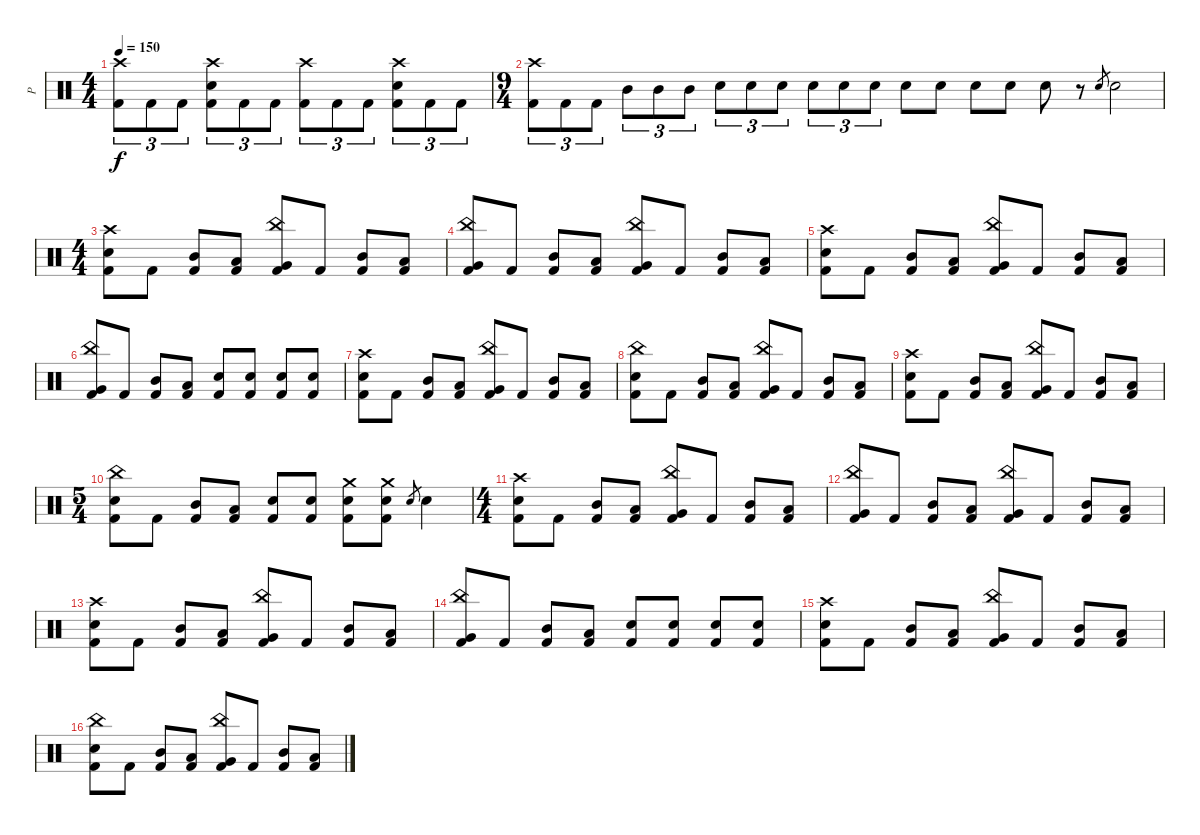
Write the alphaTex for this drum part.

\track ("P" "P") {instrument percussion}
\staff {score}
\articulation defaults
\ts (4 4)
\tempo 150
\clef neutral
\ks c
("Crash high (hit)" "Kick (hit) 2").8{tu (3 2) dy f} "Kick (hit) 2".8{tu (3 2)} "Kick (hit) 2".8{tu (3 2)} ("Crash high (hit)" "Electric Snare (hit)" "Kick (hit) 2").8{tu (3 2)} "Kick (hit) 2".8{tu (3 2)} "Kick (hit) 2".8{tu (3 2)} ("Crash high (hit)" "Kick (hit) 2").8{tu (3 2)} "Kick (hit) 2".8{tu (3 2)} "Kick (hit) 2".8{tu (3 2)} ("Crash high (hit)" "Electric Snare (hit)" "Kick (hit) 2").8{tu (3 2)} "Kick (hit) 2".8{tu (3 2)} "Kick (hit) 2".8{tu (3 2)} |
\ts (9 4)
("Crash high (hit)" "Kick (hit) 2").8{tu (3 2)} "Kick (hit) 2".8{tu (3 2)} "Kick (hit) 2".8{tu (3 2)} "Mid Tom (hit)".8{tu (3 2)} "Mid Tom (hit)".8{tu (3 2)} "Mid Tom (hit)".8{tu (3 2)} "Electric Snare (hit)".8{tu (3 2)} "Electric Snare (hit)".8{tu (3 2)} "Electric Snare (hit)".8{tu (3 2)} "Electric Snare (hit)".8{tu (3 2)} "Electric Snare (hit)".8{tu (3 2)} "Electric Snare (hit)".8{tu (3 2)} "Electric Snare (hit)".8 "Electric Snare (hit)".8 "Electric Snare (hit)".8 "Electric Snare (hit)".8 "Electric Snare (hit)".8 r.8 "Electric Snare (hit)".8{gr} "Electric Snare (hit)".2 |
\ts (4 4)
("Crash high (hit)" "Electric Snare (hit)" "Kick (hit) 2").8 "Kick (hit) 2".8 ("Mid Tom (hit)" "Kick (hit) 2").8 ("Low Tom (hit)" "Kick (hit) 2").8 ("China (hit)" "Very Low Tom (hit)" "Kick (hit) 2").8 "Kick (hit) 2".8 ("Mid Tom (hit)" "Kick (hit) 2").8 ("Low Tom (hit)" "Kick (hit) 2").8 |
("China (hit)" "Very Low Tom (hit)" "Kick (hit) 2").8 "Kick (hit) 2".8 ("Mid Tom (hit)" "Kick (hit) 2").8 ("Low Tom (hit)" "Kick (hit) 2").8 ("China (hit)" "Very Low Tom (hit)" "Kick (hit) 2").8 "Kick (hit) 2".8 ("Mid Tom (hit)" "Kick (hit) 2").8 ("Low Tom (hit)" "Kick (hit) 2").8 |
("Crash high (hit)" "Electric Snare (hit)" "Kick (hit) 2").8 "Kick (hit) 2".8 ("Mid Tom (hit)" "Kick (hit) 2").8 ("Low Tom (hit)" "Kick (hit) 2").8 ("China (hit)" "Very Low Tom (hit)" "Kick (hit) 2").8 "Kick (hit) 2".8 ("Mid Tom (hit)" "Kick (hit) 2").8 ("Low Tom (hit)" "Kick (hit) 2").8 |
("China (hit)" "Very Low Tom (hit)" "Kick (hit) 2").8 "Kick (hit) 2".8 ("Mid Tom (hit)" "Kick (hit) 2").8 ("Low Tom (hit)" "Kick (hit) 2").8 ("Electric Snare (hit)" "Kick (hit) 2").8 ("Electric Snare (hit)" "Kick (hit) 2").8 ("Electric Snare (hit)" "Kick (hit) 2").8 ("Electric Snare (hit)" "Kick (hit) 2").8 |
("Crash high (hit)" "Electric Snare (hit)" "Kick (hit) 2").8 "Kick (hit) 2".8 ("Mid Tom (hit)" "Kick (hit) 2").8 ("Low Tom (hit)" "Kick (hit) 2").8 ("China (hit)" "Very Low Tom (hit)" "Kick (hit) 2").8 "Kick (hit) 2".8 ("Mid Tom (hit)" "Kick (hit) 2").8 ("Low Tom (hit)" "Kick (hit) 2").8 |
("China (hit)" "Electric Snare (hit)" "Kick (hit) 2").8 "Kick (hit) 2".8 ("Mid Tom (hit)" "Kick (hit) 2").8 ("Low Tom (hit)" "Kick (hit) 2").8 ("China (hit)" "Very Low Tom (hit)" "Kick (hit) 2").8 "Kick (hit) 2".8 ("Mid Tom (hit)" "Kick (hit) 2").8 ("Low Tom (hit)" "Kick (hit) 2").8 |
("Crash high (hit)" "Electric Snare (hit)" "Kick (hit) 2").8 "Kick (hit) 2".8 ("Mid Tom (hit)" "Kick (hit) 2").8 ("Low Tom (hit)" "Kick (hit) 2").8 ("China (hit)" "Very Low Tom (hit)" "Kick (hit) 2").8 "Kick (hit) 2".8 ("Mid Tom (hit)" "Kick (hit) 2").8 ("Low Tom (hit)" "Kick (hit) 2").8 |
\ts (5 4)
("China (hit)" "Electric Snare (hit)" "Kick (hit) 2").8 "Kick (hit) 2".8 ("Mid Tom (hit)" "Kick (hit) 2").8 ("Low Tom (hit)" "Kick (hit) 2").8 ("Electric Snare (hit)" "Kick (hit) 2").8 ("Electric Snare (hit)" "Kick (hit) 2").8 ("Crash medium (hit)" "Electric Snare (hit)" "Kick (hit) 2").8 ("Crash medium (hit)" "Electric Snare (hit)" "Kick (hit) 2").8 "Electric Snare (hit)".8{gr} "Electric Snare (hit)".4 |
\ts (4 4)
("Crash high (hit)" "Electric Snare (hit)" "Kick (hit) 2").8 "Kick (hit) 2".8 ("Mid Tom (hit)" "Kick (hit) 2").8 ("Low Tom (hit)" "Kick (hit) 2").8 ("China (hit)" "Very Low Tom (hit)" "Kick (hit) 2").8 "Kick (hit) 2".8 ("Mid Tom (hit)" "Kick (hit) 2").8 ("Low Tom (hit)" "Kick (hit) 2").8 |
("China (hit)" "Very Low Tom (hit)" "Kick (hit) 2").8 "Kick (hit) 2".8 ("Mid Tom (hit)" "Kick (hit) 2").8 ("Low Tom (hit)" "Kick (hit) 2").8 ("China (hit)" "Very Low Tom (hit)" "Kick (hit) 2").8 "Kick (hit) 2".8 ("Mid Tom (hit)" "Kick (hit) 2").8 ("Low Tom (hit)" "Kick (hit) 2").8 |
("Crash high (hit)" "Electric Snare (hit)" "Kick (hit) 2").8 "Kick (hit) 2".8 ("Mid Tom (hit)" "Kick (hit) 2").8 ("Low Tom (hit)" "Kick (hit) 2").8 ("China (hit)" "Very Low Tom (hit)" "Kick (hit) 2").8 "Kick (hit) 2".8 ("Mid Tom (hit)" "Kick (hit) 2").8 ("Low Tom (hit)" "Kick (hit) 2").8 |
("China (hit)" "Very Low Tom (hit)" "Kick (hit) 2").8 "Kick (hit) 2".8 ("Mid Tom (hit)" "Kick (hit) 2").8 ("Low Tom (hit)" "Kick (hit) 2").8 ("Electric Snare (hit)" "Kick (hit) 2").8 ("Electric Snare (hit)" "Kick (hit) 2").8 ("Electric Snare (hit)" "Kick (hit) 2").8 ("Electric Snare (hit)" "Kick (hit) 2").8 |
("Crash high (hit)" "Electric Snare (hit)" "Kick (hit) 2").8 "Kick (hit) 2".8 ("Mid Tom (hit)" "Kick (hit) 2").8 ("Low Tom (hit)" "Kick (hit) 2").8 ("China (hit)" "Very Low Tom (hit)" "Kick (hit) 2").8 "Kick (hit) 2".8 ("Mid Tom (hit)" "Kick (hit) 2").8 ("Low Tom (hit)" "Kick (hit) 2").8 |
("China (hit)" "Electric Snare (hit)" "Kick (hit) 2").8 "Kick (hit) 2".8 ("Mid Tom (hit)" "Kick (hit) 2").8 ("Low Tom (hit)" "Kick (hit) 2").8 ("China (hit)" "Very Low Tom (hit)" "Kick (hit) 2").8 "Kick (hit) 2".8 ("Mid Tom (hit)" "Kick (hit) 2").8 ("Low Tom (hit)" "Kick (hit) 2").8
